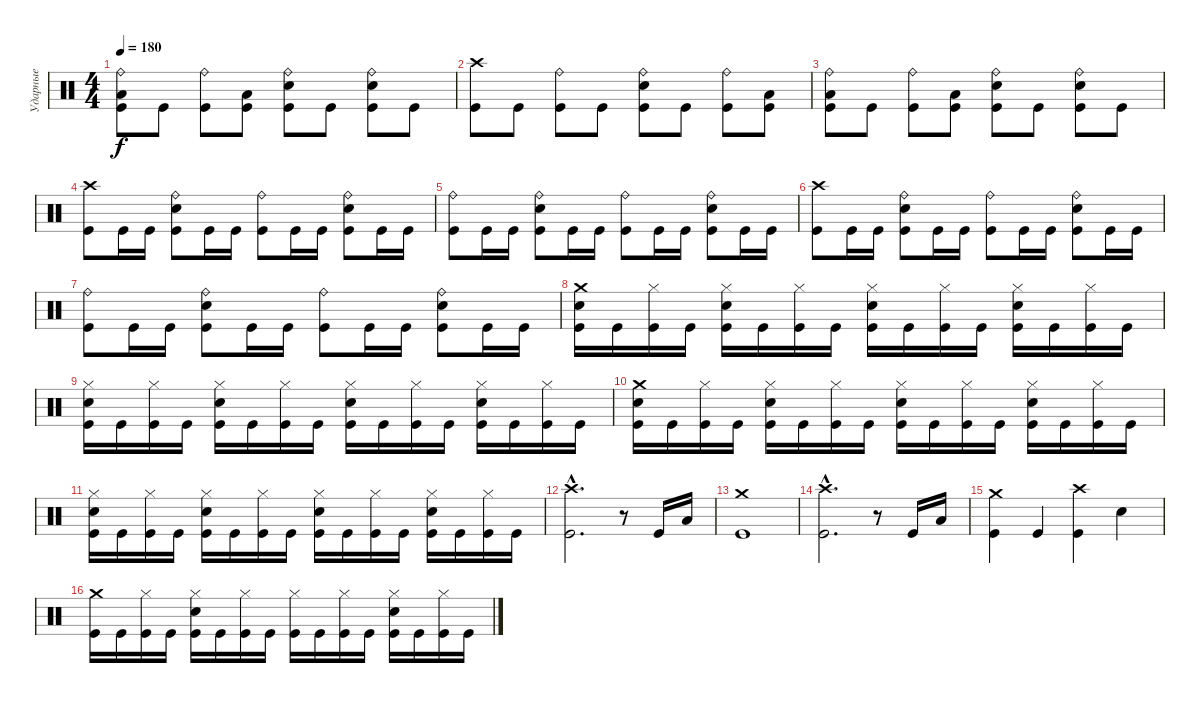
\track ("Ударные" "Ударные") {instrument percussion}
\staff {score}
\articulation defaults
\ts (4 4)
\tempo 180
\clef neutral
\ks c
("Ride (bell)" "Low Tom (hit)" "Kick (hit)").8{dy f} "Kick (hit)".8 ("Ride (bell)" "Kick (hit)").8 ("Low Tom (hit)" "Kick (hit)").8 ("Ride (bell)" "Electric Snare (hit)" "Kick (hit)").8 "Kick (hit)".8 ("Ride (bell)" "Electric Snare (hit)" "Kick (hit)").8 "Kick (hit)".8 |
("Crash high (hit)" "Kick (hit)").8 "Kick (hit)".8 ("Ride (bell)" "Kick (hit)").8 "Kick (hit)".8 ("Ride (bell)" "Electric Snare (hit)" "Kick (hit)").8 "Kick (hit)".8 ("Ride (bell)" "Kick (hit)").8 ("Low Tom (hit)" "Kick (hit)").8 |
("Ride (bell)" "Low Tom (hit)" "Kick (hit)").8 "Kick (hit)".8 ("Ride (bell)" "Kick (hit)").8 ("Low Tom (hit)" "Kick (hit)").8 ("Ride (bell)" "Electric Snare (hit)" "Kick (hit)").8 "Kick (hit)".8 ("Ride (bell)" "Electric Snare (hit)" "Kick (hit)").8 "Kick (hit)".8 |
("Crash high (hit)" "Kick (hit)").8 "Kick (hit)".16 "Kick (hit)".16 ("Ride (bell)" "Electric Snare (hit)" "Kick (hit)").8 "Kick (hit)".16 "Kick (hit)".16 ("Ride (bell)" "Kick (hit)").8 "Kick (hit)".16 "Kick (hit)".16 ("Ride (bell)" "Electric Snare (hit)" "Kick (hit)").8 "Kick (hit)".16 "Kick (hit)".16 |
("Ride (bell)" "Kick (hit)").8 "Kick (hit)".16 "Kick (hit)".16 ("Ride (bell)" "Electric Snare (hit)" "Kick (hit)").8 "Kick (hit)".16 "Kick (hit)".16 ("Ride (bell)" "Kick (hit)").8 "Kick (hit)".16 "Kick (hit)".16 ("Ride (bell)" "Electric Snare (hit)" "Kick (hit)").8 "Kick (hit)".16 "Kick (hit)".16 |
("Crash high (hit)" "Kick (hit)").8 "Kick (hit)".16 "Kick (hit)".16 ("Ride (bell)" "Electric Snare (hit)" "Kick (hit)").8 "Kick (hit)".16 "Kick (hit)".16 ("Ride (bell)" "Kick (hit)").8 "Kick (hit)".16 "Kick (hit)".16 ("Ride (bell)" "Electric Snare (hit)" "Kick (hit)").8 "Kick (hit)".16 "Kick (hit)".16 |
("Ride (bell)" "Kick (hit)").8 "Kick (hit)".16 "Kick (hit)".16 ("Ride (bell)" "Electric Snare (hit)" "Kick (hit)").8 "Kick (hit)".16 "Kick (hit)".16 ("Ride (bell)" "Kick (hit)").8 "Kick (hit)".16 "Kick (hit)".16 ("Ride (bell)" "Electric Snare (hit)" "Kick (hit)").8 "Kick (hit)".16 "Kick (hit)".16 |
("Crash medium (hit)" "Electric Snare (hit)" "Kick (hit)").16 "Kick (hit)".16 ("Hi-Hat (closed)" "Kick (hit)").16 "Kick (hit)".16 ("Hi-Hat (closed)" "Electric Snare (hit)" "Kick (hit)").16 "Kick (hit)".16 ("Hi-Hat (closed)" "Kick (hit)").16 "Kick (hit)".16 ("Hi-Hat (closed)" "Electric Snare (hit)" "Kick (hit)").16 "Kick (hit)".16 ("Hi-Hat (closed)" "Kick (hit)").16 "Kick (hit)".16 ("Hi-Hat (closed)" "Electric Snare (hit)" "Kick (hit)").16 "Kick (hit)".16 ("Hi-Hat (closed)" "Kick (hit)").16 "Kick (hit)".16 |
("Hi-Hat (closed)" "Electric Snare (hit)" "Kick (hit)").16 "Kick (hit)".16 ("Hi-Hat (closed)" "Kick (hit)").16 "Kick (hit)".16 ("Hi-Hat (closed)" "Electric Snare (hit)" "Kick (hit)").16 "Kick (hit)".16 ("Hi-Hat (closed)" "Kick (hit)").16 "Kick (hit)".16 ("Hi-Hat (closed)" "Electric Snare (hit)" "Kick (hit)").16 "Kick (hit)".16 ("Hi-Hat (closed)" "Kick (hit)").16 "Kick (hit)".16 ("Hi-Hat (closed)" "Electric Snare (hit)" "Kick (hit)").16 "Kick (hit)".16 ("Hi-Hat (closed)" "Kick (hit)").16 "Kick (hit)".16 |
("Crash medium (hit)" "Electric Snare (hit)" "Kick (hit)").16 "Kick (hit)".16 ("Hi-Hat (closed)" "Kick (hit)").16 "Kick (hit)".16 ("Hi-Hat (closed)" "Electric Snare (hit)" "Kick (hit)").16 "Kick (hit)".16 ("Hi-Hat (closed)" "Kick (hit)").16 "Kick (hit)".16 ("Hi-Hat (closed)" "Electric Snare (hit)" "Kick (hit)").16 "Kick (hit)".16 ("Hi-Hat (closed)" "Kick (hit)").16 "Kick (hit)".16 ("Hi-Hat (closed)" "Electric Snare (hit)" "Kick (hit)").16 "Kick (hit)".16 ("Hi-Hat (closed)" "Kick (hit)").16 "Kick (hit)".16 |
("Hi-Hat (closed)" "Electric Snare (hit)" "Kick (hit)").16 "Kick (hit)".16 ("Hi-Hat (closed)" "Kick (hit)").16 "Kick (hit)".16 ("Hi-Hat (closed)" "Electric Snare (hit)" "Kick (hit)").16 "Kick (hit)".16 ("Hi-Hat (closed)" "Kick (hit)").16 "Kick (hit)".16 ("Hi-Hat (closed)" "Electric Snare (hit)" "Kick (hit)").16 "Kick (hit)".16 ("Hi-Hat (closed)" "Kick (hit)").16 "Kick (hit)".16 ("Hi-Hat (closed)" "Electric Snare (hit)" "Kick (hit)").16 "Kick (hit)".16 ("Hi-Hat (closed)" "Kick (hit)").16 "Kick (hit)".16 |
("Crash high (hit)"{hac} "Kick (hit)"{hac}).2{d} r.8 "Kick (hit)".16 "Low Tom (hit)".16 |
("Crash medium (hit)" "Kick (hit)").1 |
("Crash high (hit)"{hac} "Kick (hit)"{hac}).2{d} r.8 "Kick (hit)".16 "Low Tom (hit)".16 |
("Crash medium (hit)" "Kick (hit)").4 "Kick (hit)".4 ("Crash high (hit)" "Kick (hit)").4 "Electric Snare (hit)".4 |
("Crash medium (hit)" "Kick (hit)").16 "Kick (hit)".16 ("Hi-Hat (closed)" "Kick (hit)").16 "Kick (hit)".16 ("Hi-Hat (closed)" "Electric Snare (hit)" "Kick (hit)").16 "Kick (hit)".16 ("Hi-Hat (closed)" "Kick (hit)").16 "Kick (hit)".16 ("Hi-Hat (closed)" "Kick (hit)").16 "Kick (hit)".16 ("Hi-Hat (closed)" "Kick (hit)").16 "Kick (hit)".16 ("Hi-Hat (closed)" "Electric Snare (hit)" "Kick (hit)").16 "Kick (hit)".16 ("Hi-Hat (closed)" "Kick (hit)").16 "Kick (hit)".16
